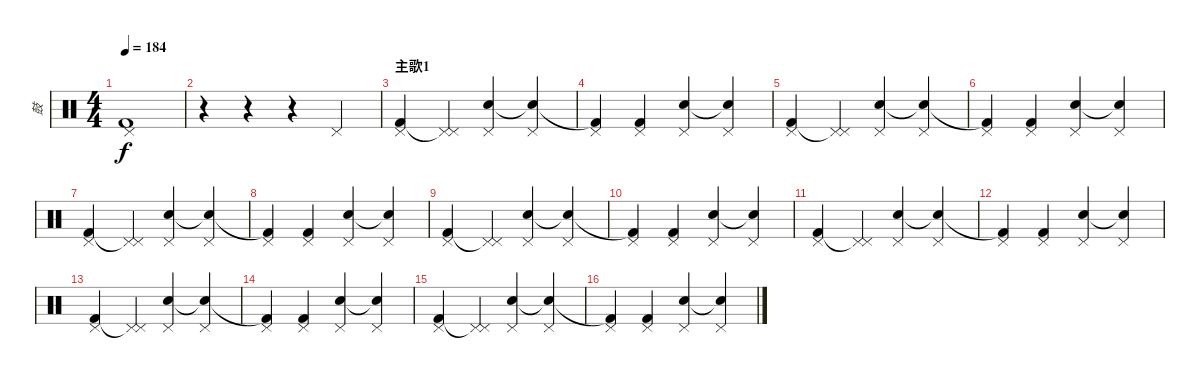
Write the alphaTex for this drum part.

\track ("鼓" "鼓") {instrument percussion}
\staff {score}
\articulation defaults
\ts (4 4)
\tempo 184
\clef neutral
\ks c
("Pedal Hi-Hat (hit)" "Kick (hit) 2").1{dy f} |
r.4 r.4 r.4 "Pedal Hi-Hat (hit)".4 |
\section ("" "主歌1")
("Pedal Hi-Hat (hit)" "Kick (hit) 2").4 ("Pedal Hi-Hat (hit)" "Pedal Hi-Hat (hit)"{t}).4 ("Pedal Hi-Hat (hit)" "Electric Snare (hit)").4 ("Pedal Hi-Hat (hit)" "Snare (hit)"{t}).4 |
("Pedal Hi-Hat (hit)" "Kick (hit) 2"{t}).4 ("Pedal Hi-Hat (hit)" "Kick (hit) 2").4 ("Pedal Hi-Hat (hit)" "Electric Snare (hit)").4 ("Pedal Hi-Hat (hit)" "Snare (hit)"{t}).4 |
("Pedal Hi-Hat (hit)" "Kick (hit) 2").4 ("Pedal Hi-Hat (hit)" "Pedal Hi-Hat (hit)"{t}).4 ("Pedal Hi-Hat (hit)" "Electric Snare (hit)").4 ("Pedal Hi-Hat (hit)" "Snare (hit)"{t}).4 |
("Pedal Hi-Hat (hit)" "Kick (hit) 2"{t}).4 ("Pedal Hi-Hat (hit)" "Kick (hit) 2").4 ("Pedal Hi-Hat (hit)" "Electric Snare (hit)").4 ("Pedal Hi-Hat (hit)" "Snare (hit)"{t}).4 |
("Pedal Hi-Hat (hit)" "Kick (hit) 2").4 ("Pedal Hi-Hat (hit)" "Pedal Hi-Hat (hit)"{t}).4 ("Pedal Hi-Hat (hit)" "Electric Snare (hit)").4 ("Pedal Hi-Hat (hit)" "Snare (hit)"{t}).4 |
("Pedal Hi-Hat (hit)" "Kick (hit) 2"{t}).4 ("Pedal Hi-Hat (hit)" "Kick (hit) 2").4 ("Pedal Hi-Hat (hit)" "Electric Snare (hit)").4 ("Pedal Hi-Hat (hit)" "Snare (hit)"{t}).4 |
("Pedal Hi-Hat (hit)" "Kick (hit) 2").4 ("Pedal Hi-Hat (hit)" "Pedal Hi-Hat (hit)"{t}).4 ("Pedal Hi-Hat (hit)" "Electric Snare (hit)").4 ("Pedal Hi-Hat (hit)" "Snare (hit)"{t}).4 |
("Pedal Hi-Hat (hit)" "Kick (hit) 2"{t}).4 ("Pedal Hi-Hat (hit)" "Kick (hit) 2").4 ("Pedal Hi-Hat (hit)" "Electric Snare (hit)").4 ("Pedal Hi-Hat (hit)" "Snare (hit)"{t}).4 |
("Pedal Hi-Hat (hit)" "Kick (hit) 2").4 ("Pedal Hi-Hat (hit)" "Pedal Hi-Hat (hit)"{t}).4 ("Pedal Hi-Hat (hit)" "Electric Snare (hit)").4 ("Pedal Hi-Hat (hit)" "Snare (hit)"{t}).4 |
("Pedal Hi-Hat (hit)" "Kick (hit) 2"{t}).4 ("Pedal Hi-Hat (hit)" "Kick (hit) 2").4 ("Pedal Hi-Hat (hit)" "Electric Snare (hit)").4 ("Pedal Hi-Hat (hit)" "Snare (hit)"{t}).4 |
("Pedal Hi-Hat (hit)" "Kick (hit) 2").4 ("Pedal Hi-Hat (hit)" "Pedal Hi-Hat (hit)"{t}).4 ("Pedal Hi-Hat (hit)" "Electric Snare (hit)").4 ("Pedal Hi-Hat (hit)" "Snare (hit)"{t}).4 |
("Pedal Hi-Hat (hit)" "Kick (hit) 2"{t}).4 ("Pedal Hi-Hat (hit)" "Kick (hit) 2").4 ("Pedal Hi-Hat (hit)" "Electric Snare (hit)").4 ("Pedal Hi-Hat (hit)" "Snare (hit)"{t}).4 |
("Pedal Hi-Hat (hit)" "Kick (hit) 2").4 ("Pedal Hi-Hat (hit)" "Pedal Hi-Hat (hit)"{t}).4 ("Pedal Hi-Hat (hit)" "Electric Snare (hit)").4 ("Pedal Hi-Hat (hit)" "Snare (hit)"{t}).4 |
("Pedal Hi-Hat (hit)" "Kick (hit) 2"{t}).4 ("Pedal Hi-Hat (hit)" "Kick (hit) 2").4 ("Pedal Hi-Hat (hit)" "Electric Snare (hit)").4 ("Pedal Hi-Hat (hit)" "Snare (hit)"{t}).4
